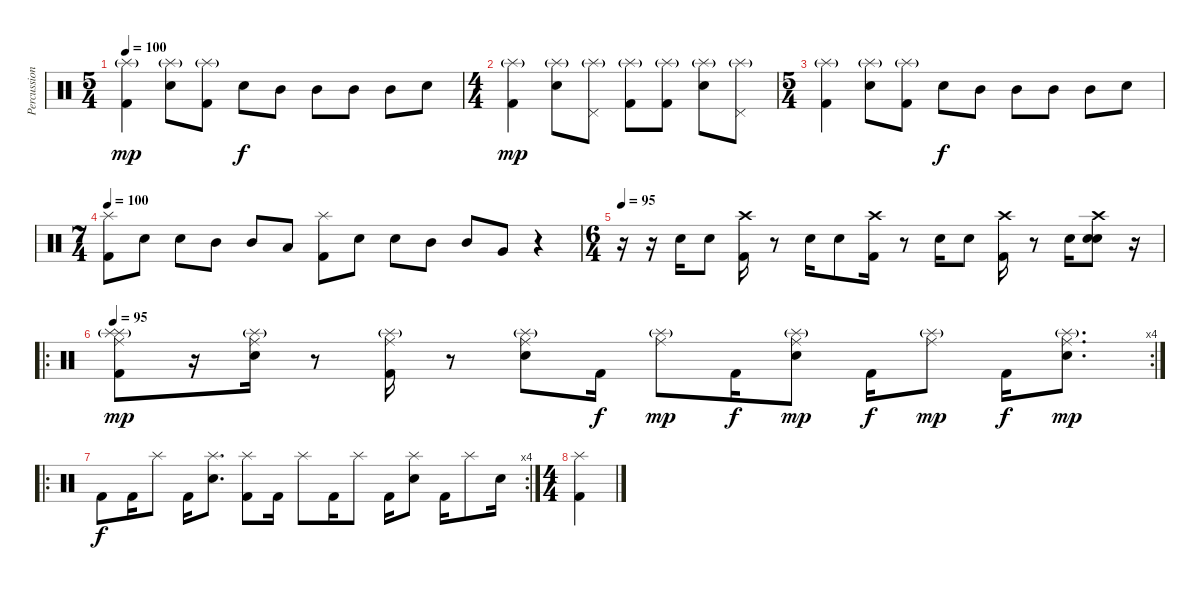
\track ("Percussion" "Percussion") {instrument percussion}
\staff {score}
\articulation defaults
\ts (5 4)
\tempo 100
\clef neutral
\ks c
("Splash (hit)"{g} "Kick (hit) 2").4{dy mp} ("Splash (hit)"{g} "Electric Snare (hit)").8 ("Splash (hit)"{g} "Kick (hit) 2").8 "Electric Snare (hit)".8{dy f} "Mid Tom (hit)".8 "Mid Tom (hit)".8 "Mid Tom (hit)".8 "Mid Tom (hit)".8 "Electric Snare (hit)".8 |
\ts (4 4)
("Splash (hit)"{g} "Kick (hit) 2").4{dy mp} ("Splash (hit)"{g} "Electric Snare (hit)").8 ("Splash (hit)"{g} "Pedal Hi-Hat (hit)").8 ("Splash (hit)"{g} "Kick (hit) 2").8 ("Splash (hit)"{g} "Kick (hit) 2").8 ("Splash (hit)"{g} "Electric Snare (hit)").8 ("Splash (hit)"{g} "Pedal Hi-Hat (hit)").8 |
\ts (5 4)
("Splash (hit)"{g} "Kick (hit) 2").4 ("Splash (hit)"{g} "Electric Snare (hit)").8 ("Splash (hit)"{g} "Kick (hit) 2").8 "Electric Snare (hit)".8{dy f} "Mid Tom (hit)".8 "Mid Tom (hit)".8 "Mid Tom (hit)".8 "Mid Tom (hit)".8 "Electric Snare (hit)".8 |
\ts (7 4)
\tempo 100
("Splash (hit)" "Kick (hit) 2").8 "Electric Snare (hit)".8 "Electric Snare (hit)".8 "Mid Tom (hit)".8 "Mid Tom (hit)".8 "Low Tom (hit)".8 ("Splash (hit)" "Kick (hit) 2").8 "Electric Snare (hit)".8 "Electric Snare (hit)".8 "Mid Tom (hit)".8 "Mid Tom (hit)".8 "Very Low Tom (hit)".8 r.4 |
\ts (6 4)
\tempo 95
r.16 r.16 "Electric Snare (hit)".16 "Electric Snare (hit)".8 ("Crash high (hit)" "Kick (hit) 2").16 r.8 "Electric Snare (hit)".16 "Electric Snare (hit)".8 ("Crash high (hit)" "Kick (hit) 2").16 r.8 "Electric Snare (hit)".16 "Electric Snare (hit)".8 ("Crash high (hit)" "Kick (hit) 2").16 r.8 "Electric Snare (hit)".16 ("Snare (hit) 2" "Crash high (hit)" "Electric Snare (hit)").8 r.16 |
\ro
\rc 4
\tempo 95
("Splash (hit)"{g} "Splash (hit)"{g} "Ride (middle)" "Kick (hit) 2").8{dy mp} r.16 ("Splash (hit)"{g} "Ride (middle)" "Electric Snare (hit)").16 r.8 ("Splash (hit)"{g} "Ride (middle)" "Kick (hit) 2").16 r.8 ("Splash (hit)"{g} "Ride (middle)" "Electric Snare (hit)").8 "Kick (hit) 2".16{dy f} ("Splash (hit)"{g} "Ride (middle)").8{dy mp} "Kick (hit) 2".16{dy f} ("Splash (hit)"{g} "Ride (middle)" "Electric Snare (hit)").8{dy mp} "Kick (hit) 2".16{dy f} ("Splash (hit)"{g} "Ride (middle)").8{dy mp} "Kick (hit) 2".16{dy f} ("Splash (hit)"{g} "Ride (middle)" "Electric Snare (hit)").8{d dy mp} |
\ro
\rc 4 "Kick (hit) 2".8{dy f} "Kick (hit) 2".16 "Splash (hit)".8 "Kick (hit) 2".16
("Splash (hit)" "Electric Snare (hit)").8{d} ("Splash (hit)" "Kick (hit) 2").8 "Kick (hit) 2".16 "Splash (hit)".8 "Kick (hit) 2".16 "Splash (hit)".8 "Kick (hit) 2".16 ("Splash (hit)" "Electric Snare (hit)").8 "Kick (hit) 2".16 "Splash (hit)".8 "Electric Snare (hit)".16 |
\ts (4 4)
("Splash (hit)" "Kick (hit) 2").4
